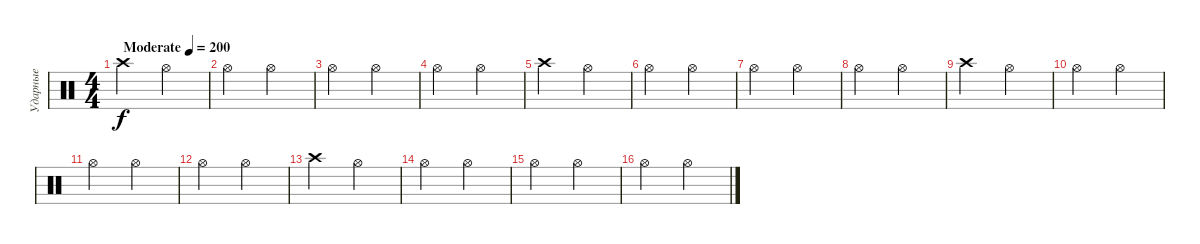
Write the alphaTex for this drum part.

\track ("Ударные" "Ударные") {instrument percussion}
\staff {score}
\articulation defaults
\ts (4 4)
\tempo (200 "Moderate")
\clef neutral
\ks c "Crash high (hit)".2{dy f} "Hi-Hat (open)".2
|
"Hi-Hat (open)".2 "Hi-Hat (open)".2 |
"Hi-Hat (open)".2 "Hi-Hat (open)".2 |
"Hi-Hat (open)".2 "Hi-Hat (open)".2 |
"Crash high (hit)".2 "Hi-Hat (open)".2 |
"Hi-Hat (open)".2 "Hi-Hat (open)".2 |
"Hi-Hat (open)".2 "Hi-Hat (open)".2 |
"Hi-Hat (open)".2 "Hi-Hat (open)".2 |
"Crash high (hit)".2 "Hi-Hat (open)".2 |
"Hi-Hat (open)".2 "Hi-Hat (open)".2 |
"Hi-Hat (open)".2 "Hi-Hat (open)".2 |
"Hi-Hat (open)".2 "Hi-Hat (open)".2 |
"Crash high (hit)".2 "Hi-Hat (open)".2 |
"Hi-Hat (open)".2 "Hi-Hat (open)".2 |
"Hi-Hat (open)".2 "Hi-Hat (open)".2 |
"Hi-Hat (open)".2 "Hi-Hat (open)".2
